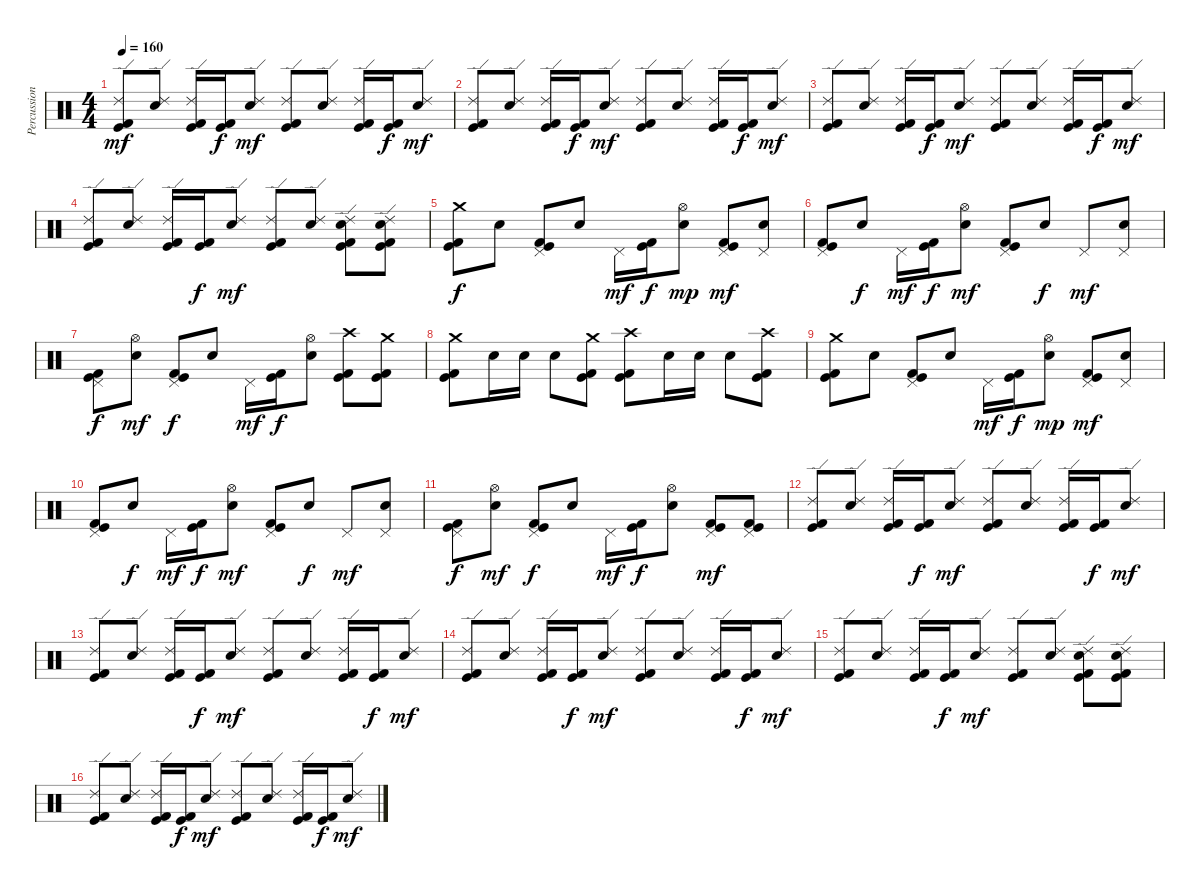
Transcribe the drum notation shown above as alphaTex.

\track ("Percussions" "Percussion") {instrument percussion}
\staff {score}
\articulation defaults
\ts (4 4)
\tempo 160
\clef neutral
\ks c
("Ride (edge) 2" "Kick (hit)" "Kick (hit) 2").8{dy mf} ("Ride (edge) 2" "Electric Snare (hit)").8 ("Ride (edge) 2" "Kick (hit)" "Kick (hit) 2").16 ("Kick (hit)" "Kick (hit) 2").16{dy f} ("Ride (edge) 2" "Electric Snare (hit)").8{dy mf} ("Ride (edge) 2" "Kick (hit)" "Kick (hit) 2").8 ("Ride (edge) 2" "Electric Snare (hit)").8 ("Ride (edge) 2" "Kick (hit)" "Kick (hit) 2").16 ("Kick (hit)" "Kick (hit) 2").16{dy f} ("Ride (edge) 2" "Electric Snare (hit)").8{dy mf} |
("Ride (edge) 2" "Kick (hit)" "Kick (hit) 2").8 ("Ride (edge) 2" "Electric Snare (hit)").8 ("Ride (edge) 2" "Kick (hit)" "Kick (hit) 2").16 ("Kick (hit)" "Kick (hit) 2").16{dy f} ("Ride (edge) 2" "Electric Snare (hit)").8{dy mf} ("Ride (edge) 2" "Kick (hit)" "Kick (hit) 2").8 ("Ride (edge) 2" "Electric Snare (hit)").8 ("Ride (edge) 2" "Kick (hit)" "Kick (hit) 2").16 ("Kick (hit)" "Kick (hit) 2").16{dy f} ("Ride (edge) 2" "Electric Snare (hit)").8{dy mf} |
("Ride (edge) 2" "Kick (hit)" "Kick (hit) 2").8 ("Ride (edge) 2" "Electric Snare (hit)").8 ("Ride (edge) 2" "Kick (hit)" "Kick (hit) 2").16 ("Kick (hit)" "Kick (hit) 2").16{dy f} ("Ride (edge) 2" "Electric Snare (hit)").8{dy mf} ("Ride (edge) 2" "Kick (hit)" "Kick (hit) 2").8 ("Ride (edge) 2" "Electric Snare (hit)").8 ("Ride (edge) 2" "Kick (hit)" "Kick (hit) 2").16 ("Kick (hit)" "Kick (hit) 2").16{dy f} ("Ride (edge) 2" "Electric Snare (hit)").8{dy mf} |
("Ride (edge) 2" "Kick (hit)" "Kick (hit) 2").8 ("Ride (edge) 2" "Electric Snare (hit)").8 ("Ride (edge) 2" "Kick (hit)" "Kick (hit) 2").16 ("Kick (hit)" "Kick (hit) 2").16{dy f} ("Ride (edge) 2" "Electric Snare (hit)").8{dy mf} ("Ride (edge) 2" "Kick (hit)" "Kick (hit) 2").8 ("Ride (edge) 2" "Electric Snare (hit)").8 ("Ride (edge) 2" "Electric Snare (hit)" "Kick (hit)" "Kick (hit) 2").8 ("Ride (edge) 2" "Electric Snare (hit)" "Kick (hit)" "Kick (hit) 2").8 |
("Crash medium (hit)" "Kick (hit)" "Kick (hit) 2").8{dy f} "Electric Snare (hit)".8 ("Pedal Hi-Hat (hit)" "Kick (hit)" "Kick (hit) 2").8 "Electric Snare (hit)".8 "Pedal Hi-Hat (hit)".16{dy mf} ("Kick (hit)" "Kick (hit) 2").16{dy f} ("Hi-Hat (open)" "Electric Snare (hit)").8{dy mp} ("Pedal Hi-Hat (hit)" "Kick (hit)" "Kick (hit) 2").8{dy mf} ("Pedal Hi-Hat (hit)" "Electric Snare (hit)").8 |
("Pedal Hi-Hat (hit)" "Kick (hit)" "Kick (hit) 2").8 "Electric Snare (hit)".8{dy f} "Pedal Hi-Hat (hit)".16{dy mf} ("Kick (hit)" "Kick (hit) 2").16{dy f} ("Hi-Hat (open)" "Electric Snare (hit)").8{dy mf} ("Pedal Hi-Hat (hit)" "Kick (hit)" "Kick (hit) 2").8 "Electric Snare (hit)".8{dy f} "Pedal Hi-Hat (hit)".8{dy mf} ("Pedal Hi-Hat (hit)" "Electric Snare (hit)").8 |
("Pedal Hi-Hat (hit)" "Kick (hit)" "Kick (hit) 2").8{dy f} ("Hi-Hat (open)" "Electric Snare (hit)").8{dy mf} ("Pedal Hi-Hat (hit)" "Kick (hit)" "Kick (hit) 2").8{dy f} "Electric Snare (hit)".8 "Pedal Hi-Hat (hit)".16{dy mf} ("Kick (hit)" "Kick (hit) 2").16{dy f} ("Hi-Hat (open)" "Electric Snare (hit)").8 ("Crash high (hit)" "Kick (hit)" "Kick (hit) 2").8 ("Crash medium (hit)" "Kick (hit)" "Kick (hit) 2").8 |
("Crash medium (hit)" "Kick (hit)" "Kick (hit) 2").8 "Electric Snare (hit)".16 "Electric Snare (hit)".16 "Electric Snare (hit)".8 ("Crash medium (hit)" "Kick (hit)" "Kick (hit) 2").8 ("Crash high (hit)" "Kick (hit)" "Kick (hit) 2").8 "Electric Snare (hit)".16 "Electric Snare (hit)".16 "Electric Snare (hit)".8 ("Crash high (hit)" "Kick (hit)" "Kick (hit) 2").8 |
("Crash medium (hit)" "Kick (hit)" "Kick (hit) 2").8 "Electric Snare (hit)".8 ("Pedal Hi-Hat (hit)" "Kick (hit)" "Kick (hit) 2").8 "Electric Snare (hit)".8 "Pedal Hi-Hat (hit)".16{dy mf} ("Kick (hit)" "Kick (hit) 2").16{dy f} ("Hi-Hat (open)" "Electric Snare (hit)").8{dy mp} ("Pedal Hi-Hat (hit)" "Kick (hit)" "Kick (hit) 2").8{dy mf} ("Pedal Hi-Hat (hit)" "Electric Snare (hit)").8 |
("Pedal Hi-Hat (hit)" "Kick (hit)" "Kick (hit) 2").8 "Electric Snare (hit)".8{dy f} "Pedal Hi-Hat (hit)".16{dy mf} ("Kick (hit)" "Kick (hit) 2").16{dy f} ("Hi-Hat (open)" "Electric Snare (hit)").8{dy mf} ("Pedal Hi-Hat (hit)" "Kick (hit)" "Kick (hit) 2").8 "Electric Snare (hit)".8{dy f} "Pedal Hi-Hat (hit)".8{dy mf} ("Pedal Hi-Hat (hit)" "Electric Snare (hit)").8 |
("Pedal Hi-Hat (hit)" "Kick (hit)" "Kick (hit) 2").8{dy f} ("Hi-Hat (open)" "Electric Snare (hit)").8{dy mf} ("Pedal Hi-Hat (hit)" "Kick (hit)" "Kick (hit) 2").8{dy f} "Electric Snare (hit)".8 "Pedal Hi-Hat (hit)".16{dy mf} ("Kick (hit)" "Kick (hit) 2").16{dy f} ("Hi-Hat (open)" "Electric Snare (hit)").8 ("Pedal Hi-Hat (hit)" "Kick (hit)" "Kick (hit) 2").8{dy mf} ("Pedal Hi-Hat (hit)" "Kick (hit)" "Kick (hit) 2").8 |
("Ride (edge) 2" "Kick (hit)" "Kick (hit) 2").8 ("Ride (edge) 2" "Electric Snare (hit)").8 ("Ride (edge) 2" "Kick (hit)" "Kick (hit) 2").16 ("Kick (hit)" "Kick (hit) 2").16{dy f} ("Ride (edge) 2" "Electric Snare (hit)").8{dy mf} ("Ride (edge) 2" "Kick (hit)" "Kick (hit) 2").8 ("Ride (edge) 2" "Electric Snare (hit)").8 ("Ride (edge) 2" "Kick (hit)" "Kick (hit) 2").16 ("Kick (hit)" "Kick (hit) 2").16{dy f} ("Ride (edge) 2" "Electric Snare (hit)").8{dy mf} |
("Ride (edge) 2" "Kick (hit)" "Kick (hit) 2").8 ("Ride (edge) 2" "Electric Snare (hit)").8 ("Ride (edge) 2" "Kick (hit)" "Kick (hit) 2").16 ("Kick (hit)" "Kick (hit) 2").16{dy f} ("Ride (edge) 2" "Electric Snare (hit)").8{dy mf} ("Ride (edge) 2" "Kick (hit)" "Kick (hit) 2").8 ("Ride (edge) 2" "Electric Snare (hit)").8 ("Ride (edge) 2" "Kick (hit)" "Kick (hit) 2").16 ("Kick (hit)" "Kick (hit) 2").16{dy f} ("Ride (edge) 2" "Electric Snare (hit)").8{dy mf} |
("Ride (edge) 2" "Kick (hit)" "Kick (hit) 2").8 ("Ride (edge) 2" "Electric Snare (hit)").8 ("Ride (edge) 2" "Kick (hit)" "Kick (hit) 2").16 ("Kick (hit)" "Kick (hit) 2").16{dy f} ("Ride (edge) 2" "Electric Snare (hit)").8{dy mf} ("Ride (edge) 2" "Kick (hit)" "Kick (hit) 2").8 ("Ride (edge) 2" "Electric Snare (hit)").8 ("Ride (edge) 2" "Kick (hit)" "Kick (hit) 2").16 ("Kick (hit)" "Kick (hit) 2").16{dy f} ("Ride (edge) 2" "Electric Snare (hit)").8{dy mf} |
("Ride (edge) 2" "Kick (hit)" "Kick (hit) 2").8 ("Ride (edge) 2" "Electric Snare (hit)").8 ("Ride (edge) 2" "Kick (hit)" "Kick (hit) 2").16 ("Kick (hit)" "Kick (hit) 2").16{dy f} ("Ride (edge) 2" "Electric Snare (hit)").8{dy mf} ("Ride (edge) 2" "Kick (hit)" "Kick (hit) 2").8 ("Ride (edge) 2" "Electric Snare (hit)").8 ("Ride (edge) 2" "Electric Snare (hit)" "Kick (hit)" "Kick (hit) 2").8 ("Ride (edge) 2" "Electric Snare (hit)" "Kick (hit)" "Kick (hit) 2").8 |
("Ride (edge) 2" "Kick (hit)" "Kick (hit) 2").8 ("Ride (edge) 2" "Electric Snare (hit)").8 ("Ride (edge) 2" "Kick (hit)" "Kick (hit) 2").16 ("Kick (hit)" "Kick (hit) 2").16{dy f} ("Ride (edge) 2" "Electric Snare (hit)").8{dy mf} ("Ride (edge) 2" "Kick (hit)" "Kick (hit) 2").8 ("Ride (edge) 2" "Electric Snare (hit)").8 ("Ride (edge) 2" "Kick (hit)" "Kick (hit) 2").16 ("Kick (hit)" "Kick (hit) 2").16{dy f} ("Ride (edge) 2" "Electric Snare (hit)").8{dy mf}
